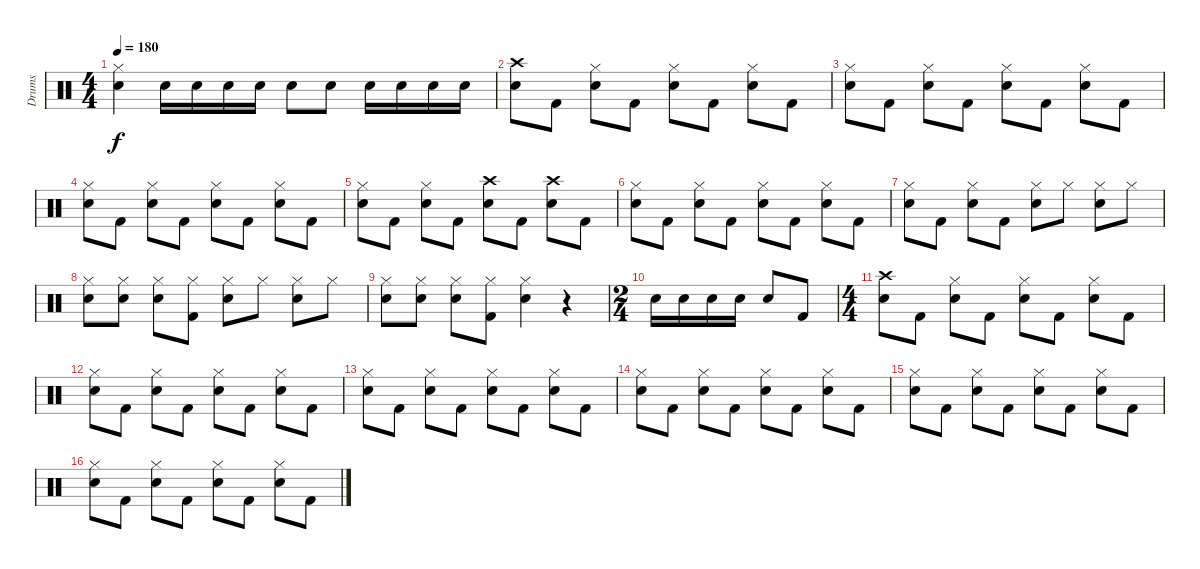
\track ("Drums" "Drums") {instrument percussion}
\staff {score}
\articulation defaults
\ts (4 4)
\tempo 180
\clef neutral
\ks c
("Hi-Hat (closed)" "Electric Snare (hit)").4{dy f} "Electric Snare (hit)".16 "Electric Snare (hit)".16 "Electric Snare (hit)".16 "Electric Snare (hit)".16 "Electric Snare (hit)".8 "Electric Snare (hit)".8 "Electric Snare (hit)".16 "Electric Snare (hit)".16 "Electric Snare (hit)".16 "Electric Snare (hit)".16 |
("Crash high (hit)" "Electric Snare (hit)").8 "Kick (hit) 2".8 ("Hi-Hat (closed)" "Electric Snare (hit)").8 "Kick (hit) 2".8 ("Hi-Hat (closed)" "Electric Snare (hit)").8 "Kick (hit) 2".8 ("Hi-Hat (closed)" "Electric Snare (hit)").8 "Kick (hit) 2".8 |
("Hi-Hat (closed)" "Electric Snare (hit)").8 "Kick (hit) 2".8 ("Hi-Hat (closed)" "Electric Snare (hit)").8 "Kick (hit) 2".8 ("Hi-Hat (closed)" "Electric Snare (hit)").8 "Kick (hit) 2".8 ("Hi-Hat (closed)" "Electric Snare (hit)").8 "Kick (hit) 2".8 |
("Hi-Hat (closed)" "Electric Snare (hit)").8 "Kick (hit) 2".8 ("Hi-Hat (closed)" "Electric Snare (hit)").8 "Kick (hit) 2".8 ("Hi-Hat (closed)" "Electric Snare (hit)").8 "Kick (hit) 2".8 ("Hi-Hat (closed)" "Electric Snare (hit)").8 "Kick (hit) 2".8 |
("Hi-Hat (closed)" "Electric Snare (hit)").8 "Kick (hit) 2".8 ("Hi-Hat (closed)" "Electric Snare (hit)").8 "Kick (hit) 2".8 ("Crash high (hit)" "Electric Snare (hit)").8 "Kick (hit) 2".8 ("Crash high (hit)" "Electric Snare (hit)").8 "Kick (hit) 2".8 |
("Hi-Hat (closed)" "Electric Snare (hit)").8 "Kick (hit) 2".8 ("Hi-Hat (closed)" "Electric Snare (hit)").8 "Kick (hit) 2".8 ("Hi-Hat (closed)" "Electric Snare (hit)").8 "Kick (hit) 2".8 ("Hi-Hat (closed)" "Electric Snare (hit)").8 "Kick (hit) 2".8 |
("Hi-Hat (closed)" "Electric Snare (hit)").8 "Kick (hit) 2".8 ("Hi-Hat (closed)" "Electric Snare (hit)").8 "Kick (hit) 2".8 ("Hi-Hat (closed)" "Electric Snare (hit)").8 "Hi-Hat (closed)".8 ("Hi-Hat (closed)" "Electric Snare (hit)").8 "Hi-Hat (closed)".8 |
("Hi-Hat (closed)" "Electric Snare (hit)").8 ("Hi-Hat (closed)" "Electric Snare (hit)").8 ("Hi-Hat (closed)" "Electric Snare (hit)").8 ("Hi-Hat (closed)" "Kick (hit) 2").8 ("Hi-Hat (closed)" "Electric Snare (hit)").8 "Hi-Hat (closed)".8 ("Hi-Hat (closed)" "Electric Snare (hit)").8 "Hi-Hat (closed)".8 |
("Hi-Hat (closed)" "Electric Snare (hit)").8 ("Hi-Hat (closed)" "Electric Snare (hit)").8 ("Hi-Hat (closed)" "Electric Snare (hit)").8 ("Hi-Hat (closed)" "Kick (hit) 2").8 ("Hi-Hat (closed)" "Electric Snare (hit)").4 r.4 |
\ts (2 4)
"Electric Snare (hit)".16 "Electric Snare (hit)".16 "Electric Snare (hit)".16 "Electric Snare (hit)".16 "Electric Snare (hit)".8 "Kick (hit) 2".8 |
\ts (4 4)
("Crash high (hit)" "Electric Snare (hit)").8 "Kick (hit) 2".8 ("Hi-Hat (closed)" "Electric Snare (hit)").8 "Kick (hit) 2".8 ("Hi-Hat (closed)" "Electric Snare (hit)").8 "Kick (hit) 2".8 ("Hi-Hat (closed)" "Electric Snare (hit)").8 "Kick (hit) 2".8 |
("Hi-Hat (closed)" "Electric Snare (hit)").8 "Kick (hit) 2".8 ("Hi-Hat (closed)" "Electric Snare (hit)").8 "Kick (hit) 2".8 ("Hi-Hat (closed)" "Electric Snare (hit)").8 "Kick (hit) 2".8 ("Hi-Hat (closed)" "Electric Snare (hit)").8 "Kick (hit) 2".8 |
("Hi-Hat (closed)" "Electric Snare (hit)").8 "Kick (hit) 2".8 ("Hi-Hat (closed)" "Electric Snare (hit)").8 "Kick (hit) 2".8 ("Hi-Hat (closed)" "Electric Snare (hit)").8 "Kick (hit) 2".8 ("Hi-Hat (closed)" "Electric Snare (hit)").8 "Kick (hit) 2".8 |
("Hi-Hat (closed)" "Electric Snare (hit)").8 "Kick (hit) 2".8 ("Hi-Hat (closed)" "Electric Snare (hit)").8 "Kick (hit) 2".8 ("Hi-Hat (closed)" "Electric Snare (hit)").8 "Kick (hit) 2".8 ("Hi-Hat (closed)" "Electric Snare (hit)").8 "Kick (hit) 2".8 |
("Hi-Hat (closed)" "Electric Snare (hit)").8 "Kick (hit) 2".8 ("Hi-Hat (closed)" "Electric Snare (hit)").8 "Kick (hit) 2".8 ("Hi-Hat (closed)" "Electric Snare (hit)").8 "Kick (hit) 2".8 ("Hi-Hat (closed)" "Electric Snare (hit)").8 "Kick (hit) 2".8 |
("Hi-Hat (closed)" "Electric Snare (hit)").8 "Kick (hit) 2".8 ("Hi-Hat (closed)" "Electric Snare (hit)").8 "Kick (hit) 2".8 ("Hi-Hat (closed)" "Electric Snare (hit)").8 "Kick (hit) 2".8 ("Hi-Hat (closed)" "Electric Snare (hit)").8 "Kick (hit) 2".8
